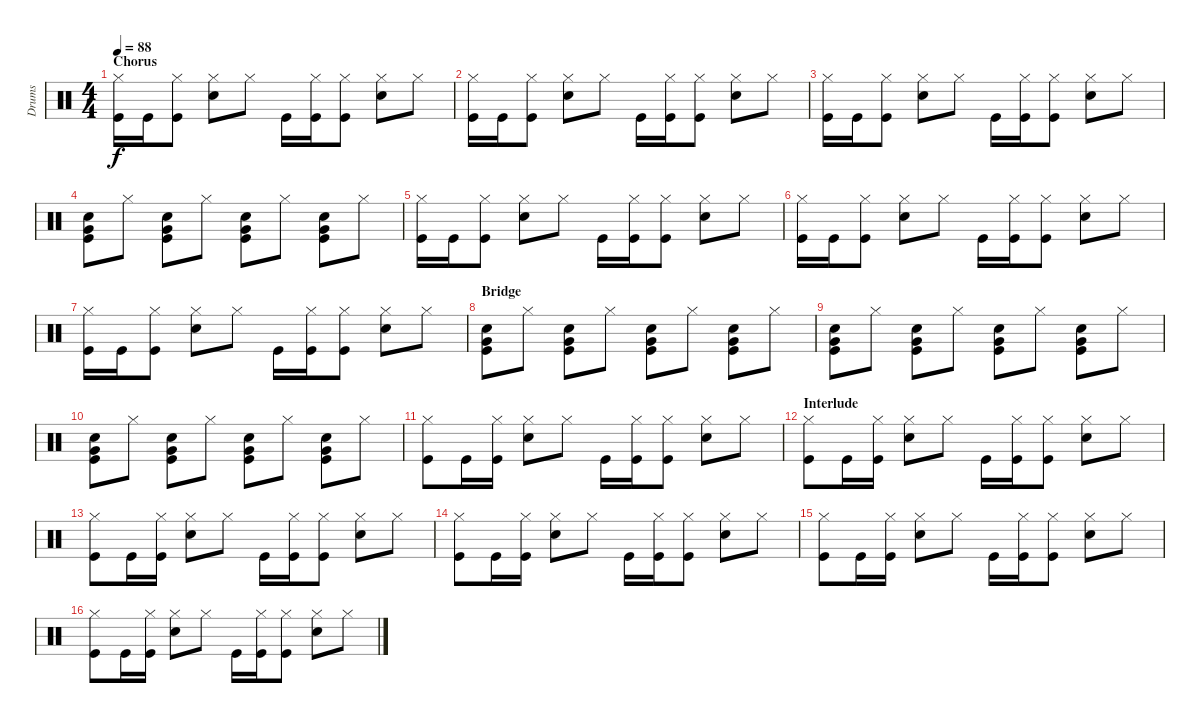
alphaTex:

\track ("Drums" "Drums") {instrument percussion}
\staff {score}
\articulation defaults
\ts (4 4)
\section ("" "Chorus")
\tempo 88
\clef neutral
\ks c
("Hi-Hat (closed)" "Kick (hit)").16{dy f} "Kick (hit)".16 ("Hi-Hat (closed)" "Kick (hit)").8 ("Hi-Hat (closed)" "Snare (hit) 2").8 "Hi-Hat (closed)".8 "Kick (hit)".16 ("Hi-Hat (closed)" "Kick (hit)").16 ("Hi-Hat (closed)" "Kick (hit)").8 ("Hi-Hat (closed)" "Snare (hit) 2").8 "Hi-Hat (closed)".8 |
("Hi-Hat (closed)" "Kick (hit)").16 "Kick (hit)".16 ("Hi-Hat (closed)" "Kick (hit)").8 ("Hi-Hat (closed)" "Snare (hit) 2").8 "Hi-Hat (closed)".8 "Kick (hit)".16 ("Hi-Hat (closed)" "Kick (hit)").16 ("Hi-Hat (closed)" "Kick (hit)").8 ("Hi-Hat (closed)" "Snare (hit) 2").8 "Hi-Hat (closed)".8 |
("Hi-Hat (closed)" "Kick (hit)").16 "Kick (hit)".16 ("Hi-Hat (closed)" "Kick (hit)").8 ("Hi-Hat (closed)" "Snare (hit) 2").8 "Hi-Hat (closed)".8 "Kick (hit)".16 ("Hi-Hat (closed)" "Kick (hit)").16 ("Hi-Hat (closed)" "Kick (hit)").8 ("Hi-Hat (closed)" "Snare (hit) 2").8 "Hi-Hat (closed)".8 |
("Very Low Tom (hit)" "Snare (hit) 2" "Kick (hit)").8 "Hi-Hat (closed)".8 ("Snare (hit) 2" "Kick (hit)" "Very Low Tom (hit)").8 "Hi-Hat (closed)".8 ("Snare (hit) 2" "Kick (hit)" "Very Low Tom (hit)").8 "Hi-Hat (closed)".8 ("Snare (hit) 2" "Very Low Tom (hit)" "Kick (hit)").8 "Hi-Hat (closed)".8 |
("Hi-Hat (closed)" "Kick (hit)").16 "Kick (hit)".16 ("Hi-Hat (closed)" "Kick (hit)").8 ("Hi-Hat (closed)" "Snare (hit) 2").8 "Hi-Hat (closed)".8 "Kick (hit)".16 ("Hi-Hat (closed)" "Kick (hit)").16 ("Hi-Hat (closed)" "Kick (hit)").8 ("Hi-Hat (closed)" "Snare (hit) 2").8 "Hi-Hat (closed)".8 |
("Hi-Hat (closed)" "Kick (hit)").16 "Kick (hit)".16 ("Hi-Hat (closed)" "Kick (hit)").8 ("Hi-Hat (closed)" "Snare (hit) 2").8 "Hi-Hat (closed)".8 "Kick (hit)".16 ("Hi-Hat (closed)" "Kick (hit)").16 ("Hi-Hat (closed)" "Kick (hit)").8 ("Hi-Hat (closed)" "Snare (hit) 2").8 "Hi-Hat (closed)".8 |
("Hi-Hat (closed)" "Kick (hit)").16 "Kick (hit)".16 ("Hi-Hat (closed)" "Kick (hit)").8 ("Hi-Hat (closed)" "Snare (hit) 2").8 "Hi-Hat (closed)".8 "Kick (hit)".16 ("Hi-Hat (closed)" "Kick (hit)").16 ("Hi-Hat (closed)" "Kick (hit)").8 ("Hi-Hat (closed)" "Snare (hit) 2").8 "Hi-Hat (closed)".8 |
\section ("" "Bridge")
("Very Low Tom (hit)" "Snare (hit) 2" "Kick (hit)").8 "Hi-Hat (closed)".8 ("Snare (hit) 2" "Kick (hit)" "Very Low Tom (hit)").8 "Hi-Hat (closed)".8 ("Snare (hit) 2" "Kick (hit)" "Very Low Tom (hit)").8 "Hi-Hat (closed)".8 ("Snare (hit) 2" "Very Low Tom (hit)" "Kick (hit)").8 "Hi-Hat (closed)".8 |
("Very Low Tom (hit)" "Snare (hit) 2" "Kick (hit)").8 "Hi-Hat (closed)".8 ("Snare (hit) 2" "Kick (hit)" "Very Low Tom (hit)").8 "Hi-Hat (closed)".8 ("Snare (hit) 2" "Kick (hit)" "Very Low Tom (hit)").8 "Hi-Hat (closed)".8 ("Snare (hit) 2" "Very Low Tom (hit)" "Kick (hit)").8 "Hi-Hat (closed)".8 |
("Very Low Tom (hit)" "Snare (hit) 2" "Kick (hit)").8 "Hi-Hat (closed)".8 ("Snare (hit) 2" "Kick (hit)" "Very Low Tom (hit)").8 "Hi-Hat (closed)".8 ("Snare (hit) 2" "Kick (hit)" "Very Low Tom (hit)").8 "Hi-Hat (closed)".8 ("Snare (hit) 2" "Very Low Tom (hit)" "Kick (hit)").8 "Hi-Hat (closed)".8 |
("Hi-Hat (closed)" "Kick (hit)").8 "Kick (hit)".16 ("Hi-Hat (closed)" "Kick (hit)").16 ("Hi-Hat (closed)" "Snare (hit) 2").8 "Hi-Hat (closed)".8 "Kick (hit)".16 ("Hi-Hat (closed)" "Kick (hit)").16 ("Hi-Hat (closed)" "Kick (hit)").8 ("Hi-Hat (closed)" "Snare (hit) 2").8 "Hi-Hat (closed)".8 |
\section ("" "Interlude")
("Hi-Hat (closed)" "Kick (hit)").8 "Kick (hit)".16 ("Hi-Hat (closed)" "Kick (hit)").16 ("Hi-Hat (closed)" "Snare (hit) 2").8 "Hi-Hat (closed)".8 "Kick (hit)".16 ("Hi-Hat (closed)" "Kick (hit)").16 ("Hi-Hat (closed)" "Kick (hit)").8 ("Hi-Hat (closed)" "Snare (hit) 2").8 "Hi-Hat (closed)".8 |
("Hi-Hat (closed)" "Kick (hit)").8 "Kick (hit)".16 ("Hi-Hat (closed)" "Kick (hit)").16 ("Hi-Hat (closed)" "Snare (hit) 2").8 "Hi-Hat (closed)".8 "Kick (hit)".16 ("Hi-Hat (closed)" "Kick (hit)").16 ("Hi-Hat (closed)" "Kick (hit)").8 ("Hi-Hat (closed)" "Snare (hit) 2").8 "Hi-Hat (closed)".8 |
("Hi-Hat (closed)" "Kick (hit)").8 "Kick (hit)".16 ("Hi-Hat (closed)" "Kick (hit)").16 ("Hi-Hat (closed)" "Snare (hit) 2").8 "Hi-Hat (closed)".8 "Kick (hit)".16 ("Hi-Hat (closed)" "Kick (hit)").16 ("Hi-Hat (closed)" "Kick (hit)").8 ("Hi-Hat (closed)" "Snare (hit) 2").8 "Hi-Hat (closed)".8 |
("Hi-Hat (closed)" "Kick (hit)").8 "Kick (hit)".16 ("Hi-Hat (closed)" "Kick (hit)").16 ("Hi-Hat (closed)" "Snare (hit) 2").8 "Hi-Hat (closed)".8 "Kick (hit)".16 ("Hi-Hat (closed)" "Kick (hit)").16 ("Hi-Hat (closed)" "Kick (hit)").8 ("Hi-Hat (closed)" "Snare (hit) 2").8 "Hi-Hat (closed)".8 |
("Hi-Hat (closed)" "Kick (hit)").8 "Kick (hit)".16 ("Hi-Hat (closed)" "Kick (hit)").16 ("Hi-Hat (closed)" "Snare (hit) 2").8 "Hi-Hat (closed)".8 "Kick (hit)".16 ("Hi-Hat (closed)" "Kick (hit)").16 ("Hi-Hat (closed)" "Kick (hit)").8 ("Hi-Hat (closed)" "Snare (hit) 2").8 "Hi-Hat (closed)".8
